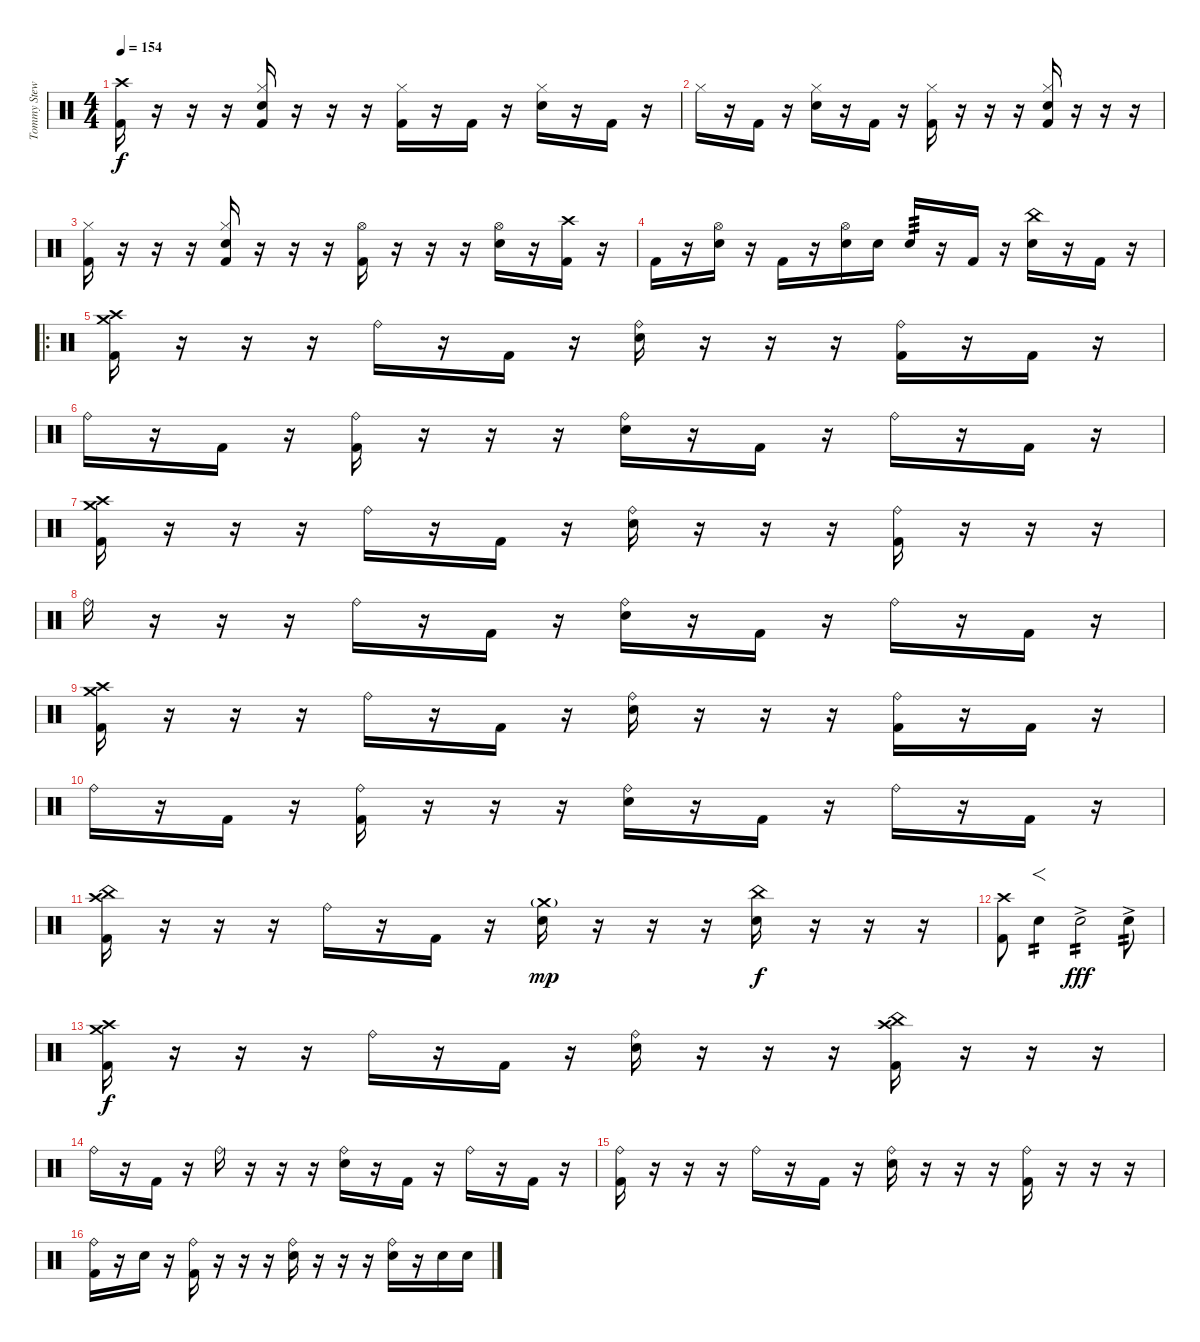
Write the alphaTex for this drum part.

\track ("Tommy Stewart" "Tommy Stew") {instrument percussion}
\staff {score}
\articulation defaults
\ts (4 4)
\tempo 154
\clef neutral
\ks c
("Crash high (hit)" "Kick (hit) 2").16{dy f} r.16 r.16 r.16 ("Hi-Hat (closed)" "Snare (hit) 2" "Kick (hit) 2").16 r.16 r.16 r.16 ("Hi-Hat (closed)" "Kick (hit) 2").16 r.16 "Kick (hit) 2".16 r.16 ("Hi-Hat (closed)" "Snare (hit) 2").16 r.16 "Kick (hit) 2".16 r.16 |
"Hi-Hat (closed)".16 r.16 "Kick (hit) 2".16 r.16 ("Hi-Hat (closed)" "Snare (hit) 2").16 r.16 "Kick (hit) 2".16 r.16 ("Hi-Hat (closed)" "Kick (hit) 2").16 r.16 r.16 r.16 ("Hi-Hat (closed)" "Snare (hit) 2" "Kick (hit) 2").16 r.16 r.16 r.16 |
("Hi-Hat (closed)" "Kick (hit) 2").16 r.16 r.16 r.16 ("Hi-Hat (closed)" "Snare (hit) 2" "Kick (hit) 2").16 r.16 r.16 r.16 ("Hi-Hat (open)" "Kick (hit) 2").16 r.16 r.16 r.16 ("Hi-Hat (open)" "Snare (hit) 2").16 r.16 ("Crash high (hit)" "Kick (hit) 2").16 r.16 |
"Kick (hit) 2".16 r.16 ("Hi-Hat (open)" "Snare (hit) 2").16 r.16 "Kick (hit) 2".16 r.16 ("Hi-Hat (open)" "Snare (hit) 2").16 "Snare (hit) 2".16 "Snare (hit) 2".16{tp 3} r.16 "Kick (hit) 2".16 r.16 ("China (hit)" "Snare (hit) 2").16 r.16 "Kick (hit) 2".16 r.16 |
\ro
("Crash high (hit)" "Crash medium (hit)" "Kick (hit) 2").16 r.16 r.16 r.16 "Ride (bell)".16 r.16 "Kick (hit) 2".16 r.16 ("Ride (bell)" "Snare (hit) 2").16 r.16 r.16 r.16 ("Ride (bell)" "Kick (hit) 2").16 r.16 "Kick (hit) 2".16 r.16 |
"Ride (bell)".16 r.16 "Kick (hit) 2".16 r.16 ("Ride (bell)" "Kick (hit) 2").16 r.16 r.16 r.16 ("Ride (bell)" "Snare (hit) 2").16 r.16 "Kick (hit) 2".16 r.16 "Ride (bell)".16 r.16 "Kick (hit) 2".16 r.16 |
("Crash high (hit)" "Crash medium (hit)" "Kick (hit) 2").16 r.16 r.16 r.16 "Ride (bell)".16 r.16 "Kick (hit) 2".16 r.16 ("Ride (bell)" "Snare (hit) 2").16 r.16 r.16 r.16 ("Ride (bell)" "Kick (hit) 2").16 r.16 r.16 r.16 |
"Ride (bell)".16 r.16 r.16 r.16 "Ride (bell)".16 r.16 "Kick (hit) 2".16 r.16 ("Ride (bell)" "Snare (hit) 2").16 r.16 "Kick (hit) 2".16 r.16 "Ride (bell)".16 r.16 "Kick (hit) 2".16 r.16 |
("Crash high (hit)" "Crash medium (hit)" "Kick (hit) 2").16 r.16 r.16 r.16 "Ride (bell)".16 r.16 "Kick (hit) 2".16 r.16 ("Ride (bell)" "Snare (hit) 2").16 r.16 r.16 r.16 ("Ride (bell)" "Kick (hit) 2").16 r.16 "Kick (hit) 2".16 r.16 |
"Ride (bell)".16 r.16 "Kick (hit) 2".16 r.16 ("Ride (bell)" "Kick (hit) 2").16 r.16 r.16 r.16 ("Ride (bell)" "Snare (hit) 2").16 r.16 "Kick (hit) 2".16 r.16 "Ride (bell)".16 r.16 "Kick (hit) 2".16 r.16 |
("Crash high (hit)" "China (hit)" "Kick (hit) 2").16 r.16 r.16 r.16 "Ride (bell)".16 r.16 "Kick (hit) 2".16 r.16 ("Crash medium (hit)"{g} "Snare (hit) 2").16{dy mp} r.16 r.16 r.16 ("China (hit)" "Snare (hit) 2").16{dy f} r.16 r.16 r.16 |
("Crash high (hit)" "Kick (hit) 2").8 "Snare (hit) 2".4{f tp 2} "Snare (hit) 2"{ac}.2{tp 2 dy fff} "Snare (hit) 2"{ac}.8{tp 2} |
("Crash high (hit)" "Crash medium (hit)" "Kick (hit) 2").16{dy f} r.16 r.16 r.16 "Ride (bell)".16 r.16 "Kick (hit) 2".16 r.16 ("Ride (bell)" "Snare (hit) 2").16 r.16 r.16 r.16 ("Crash high (hit)" "China (hit)" "Kick (hit) 2").16 r.16 r.16 r.16 |
"Ride (bell)".16 r.16 "Kick (hit) 2".16 r.16 "Ride (bell)".16 r.16 r.16 r.16 ("Ride (bell)" "Snare (hit) 2").16 r.16 "Kick (hit) 2".16 r.16 "Ride (bell)".16 r.16 "Kick (hit) 2".16 r.16 |
("Ride (bell)" "Kick (hit) 2").16 r.16 r.16 r.16 "Ride (bell)".16 r.16 "Kick (hit) 2".16 r.16 ("Ride (bell)" "Snare (hit) 2").16 r.16 r.16 r.16 ("Ride (bell)" "Kick (hit) 2").16 r.16 r.16 r.16 |
("Ride (bell)" "Kick (hit) 2").16 r.16 "Snare (hit) 2".16 r.16 ("Ride (bell)" "Kick (hit) 2").16 r.16 r.16 r.16 ("Ride (bell)" "Snare (hit) 2").16 r.16 r.16 r.16 ("Ride (bell)" "Snare (hit) 2").16 r.16 "Snare (hit) 2".16 "Snare (hit) 2".16
